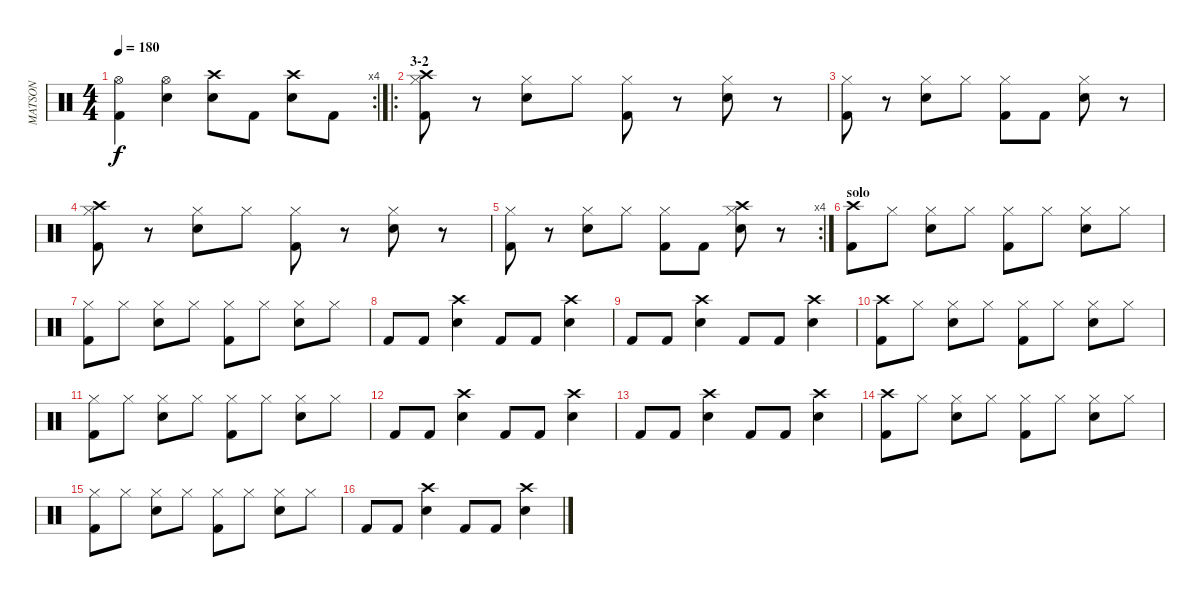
\track ("MATSON" "MATSON") {instrument percussion}
\staff {score}
\articulation defaults
\rc 4
\ts (4 4)
\tempo 180
\clef neutral
\ks c
("Hi-Hat (open)" "Kick (hit) 2").4{dy f} ("Hi-Hat (open)" "Snare (hit) 2").4 ("Crash high (hit)" "Snare (hit) 2").8 "Kick (hit) 2".8 ("Crash high (hit)" "Snare (hit) 2").8 "Kick (hit) 2".8 |
\ro
\section ("" "3-2")
("Hi-Hat (closed)" "Crash high (hit)" "Kick (hit) 2").8 r.8 ("Hi-Hat (closed)" "Snare (hit) 2").8 "Hi-Hat (closed)".8 ("Hi-Hat (closed)" "Kick (hit) 2").8 r.8 ("Hi-Hat (closed)" "Snare (hit) 2").8 r.8 |
("Hi-Hat (closed)" "Kick (hit) 2").8 r.8 ("Hi-Hat (closed)" "Snare (hit) 2").8 "Hi-Hat (closed)".8 ("Hi-Hat (closed)" "Kick (hit) 2").8 "Kick (hit) 2".8 ("Hi-Hat (closed)" "Snare (hit) 2").8 r.8 |
("Hi-Hat (closed)" "Crash high (hit)" "Kick (hit) 2").8 r.8 ("Hi-Hat (closed)" "Snare (hit) 2").8 "Hi-Hat (closed)".8 ("Hi-Hat (closed)" "Kick (hit) 2").8 r.8 ("Hi-Hat (closed)" "Snare (hit) 2").8 r.8 |
\rc 4
("Hi-Hat (closed)" "Kick (hit) 2").8 r.8 ("Hi-Hat (closed)" "Snare (hit) 2").8 "Hi-Hat (closed)".8 ("Hi-Hat (closed)" "Kick (hit) 2").8 "Kick (hit) 2".8 ("Hi-Hat (closed)" "Crash high (hit)" "Snare (hit) 2").8 r.8 |
\section ("" "solo")
("Crash high (hit)" "Kick (hit) 2").8 "Hi-Hat (closed)".8 ("Hi-Hat (closed)" "Snare (hit) 2").8 "Hi-Hat (closed)".8 ("Hi-Hat (closed)" "Kick (hit) 2").8 "Hi-Hat (closed)".8 ("Hi-Hat (closed)" "Snare (hit) 2").8 "Hi-Hat (closed)".8 |
("Hi-Hat (closed)" "Kick (hit) 2").8 "Hi-Hat (closed)".8 ("Hi-Hat (closed)" "Snare (hit) 2").8 "Hi-Hat (closed)".8 ("Hi-Hat (closed)" "Kick (hit) 2").8 "Hi-Hat (closed)".8 ("Hi-Hat (closed)" "Snare (hit) 2").8 "Hi-Hat (closed)".8 |
"Kick (hit) 2".8 "Kick (hit) 2".8 ("Crash high (hit)" "Snare (hit) 2").4 "Kick (hit) 2".8 "Kick (hit) 2".8 ("Crash high (hit)" "Snare (hit) 2").4 |
"Kick (hit) 2".8 "Kick (hit) 2".8 ("Crash high (hit)" "Snare (hit) 2").4 "Kick (hit) 2".8 "Kick (hit) 2".8 ("Crash high (hit)" "Snare (hit) 2").4 |
("Crash high (hit)" "Kick (hit) 2").8 "Hi-Hat (closed)".8 ("Hi-Hat (closed)" "Snare (hit) 2").8 "Hi-Hat (closed)".8 ("Hi-Hat (closed)" "Kick (hit) 2").8 "Hi-Hat (closed)".8 ("Hi-Hat (closed)" "Snare (hit) 2").8 "Hi-Hat (closed)".8 |
("Hi-Hat (closed)" "Kick (hit) 2").8 "Hi-Hat (closed)".8 ("Hi-Hat (closed)" "Snare (hit) 2").8 "Hi-Hat (closed)".8 ("Hi-Hat (closed)" "Kick (hit) 2").8 "Hi-Hat (closed)".8 ("Hi-Hat (closed)" "Snare (hit) 2").8 "Hi-Hat (closed)".8 |
"Kick (hit) 2".8 "Kick (hit) 2".8 ("Crash high (hit)" "Snare (hit) 2").4 "Kick (hit) 2".8 "Kick (hit) 2".8 ("Crash high (hit)" "Snare (hit) 2").4 |
"Kick (hit) 2".8 "Kick (hit) 2".8 ("Crash high (hit)" "Snare (hit) 2").4 "Kick (hit) 2".8 "Kick (hit) 2".8 ("Crash high (hit)" "Snare (hit) 2").4 |
("Crash high (hit)" "Kick (hit) 2").8 "Hi-Hat (closed)".8 ("Hi-Hat (closed)" "Snare (hit) 2").8 "Hi-Hat (closed)".8 ("Hi-Hat (closed)" "Kick (hit) 2").8 "Hi-Hat (closed)".8 ("Hi-Hat (closed)" "Snare (hit) 2").8 "Hi-Hat (closed)".8 |
("Hi-Hat (closed)" "Kick (hit) 2").8 "Hi-Hat (closed)".8 ("Hi-Hat (closed)" "Snare (hit) 2").8 "Hi-Hat (closed)".8 ("Hi-Hat (closed)" "Kick (hit) 2").8 "Hi-Hat (closed)".8 ("Hi-Hat (closed)" "Snare (hit) 2").8 "Hi-Hat (closed)".8 |
"Kick (hit) 2".8 "Kick (hit) 2".8 ("Crash high (hit)" "Snare (hit) 2").4 "Kick (hit) 2".8 "Kick (hit) 2".8 ("Crash high (hit)" "Snare (hit) 2").4
